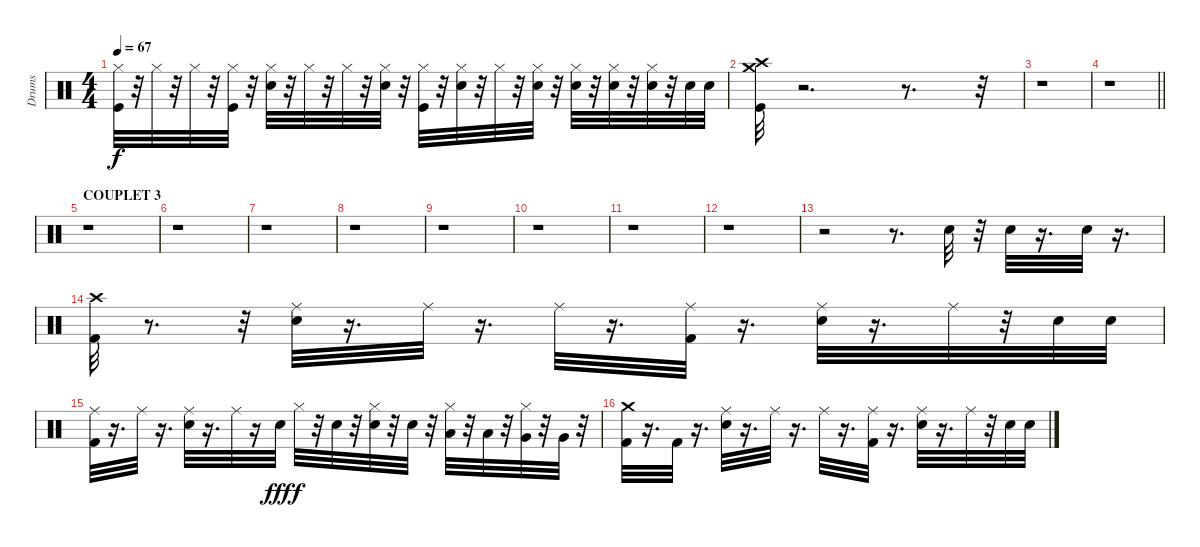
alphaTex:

\track ("Drums" "Drums") {instrument percussion}
\staff {score}
\articulation defaults
\ts (4 4)
\tempo 67
\clef neutral
\ks c
("Kick (hit)" "Hi-Hat (closed)").32{dy f} r.32 "Hi-Hat (closed)".32 r.32 "Hi-Hat (closed)".32 r.32 ("Kick (hit)" "Hi-Hat (closed)").32 r.32 ("Snare (hit) 2" "Hi-Hat (closed)").32 r.32 "Hi-Hat (closed)".32 r.32 "Hi-Hat (closed)".32 r.32 ("Snare (hit) 2" "Hi-Hat (closed)").32 r.32 ("Kick (hit)" "Hi-Hat (closed)").32 r.32 ("Snare (hit) 2" "Hi-Hat (closed)").32 r.32 "Hi-Hat (closed)".32 r.32 ("Snare (hit) 2" "Hi-Hat (closed)").32 r.32 ("Snare (hit) 2" "Hi-Hat (closed)").32 r.32 ("Snare (hit) 2" "Hi-Hat (closed)").32 r.32 ("Snare (hit) 2" "Hi-Hat (closed)").32 r.32 "Snare (hit) 2".32 "Snare (hit) 2".32 |
("Kick (hit)" "Crash high (hit)" "Crash medium (hit)").32 r.2{d} r.8{d} r.32 |
r.1 |
\barLineRight lightlight
r.1 |
\section ("" "COUPLET 3")
r.1 |
r.1 |
r.1 |
r.1 |
r.1 |
r.1 |
r.1 |
r.1 |
r.2 r.8{d} "Snare (hit) 2".32 r.32 "Snare (hit) 2".32 r.16{d} "Snare (hit) 2".32 r.16{d} |
("Kick (hit) 2" "Crash high (hit)").32 r.8{d} r.32 ("Snare (hit) 2" "Ride (middle)").32 r.16{d} "Ride (middle)".32 r.16{d} "Ride (middle)".32 r.16{d} ("Kick (hit) 2" "Ride (middle)").32 r.16{d} ("Snare (hit) 2" "Ride (middle)").32 r.16{d} "Ride (middle)".32 r.32 "Snare (hit) 2".32 "Snare (hit) 2".32 |
("Kick (hit) 2" "Ride (middle)").32 r.16{d} "Ride (middle)".32 r.16{d} ("Snare (hit) 2" "Ride (middle)").32 r.16{d} "Ride (middle)".32 r.16 "Snare (hit) 2".32{dy fff} "Hi-Hat (closed)".32{dy f} r.32 "Snare (hit) 2".32 r.32 ("Snare (hit) 2" "Hi-Hat (closed)").32 r.32 "Snare (hit) 2".32 r.32 ("Low Tom (hit)" "Hi-Hat (closed)").32 r.32 "Low Tom (hit)".32 r.32 ("Very Low Tom (hit)" "Hi-Hat (closed)").32 r.32 "Very Low Tom (hit)".32 r.32 |
("Crash medium (hit)" "Kick (hit) 2").32 r.16{d} "Kick (hit) 2".32 r.16{d} ("Ride (middle)" "Snare (hit) 2").32 r.16{d} "Ride (middle)".32 r.16{d} "Ride (middle)".32 r.16{d} ("Ride (middle)" "Kick (hit) 2").32 r.16{d} ("Snare (hit) 2" "Ride (middle)").32 r.16{d} "Ride (middle)".32 r.32 "Snare (hit) 2".32 "Snare (hit) 2".32
